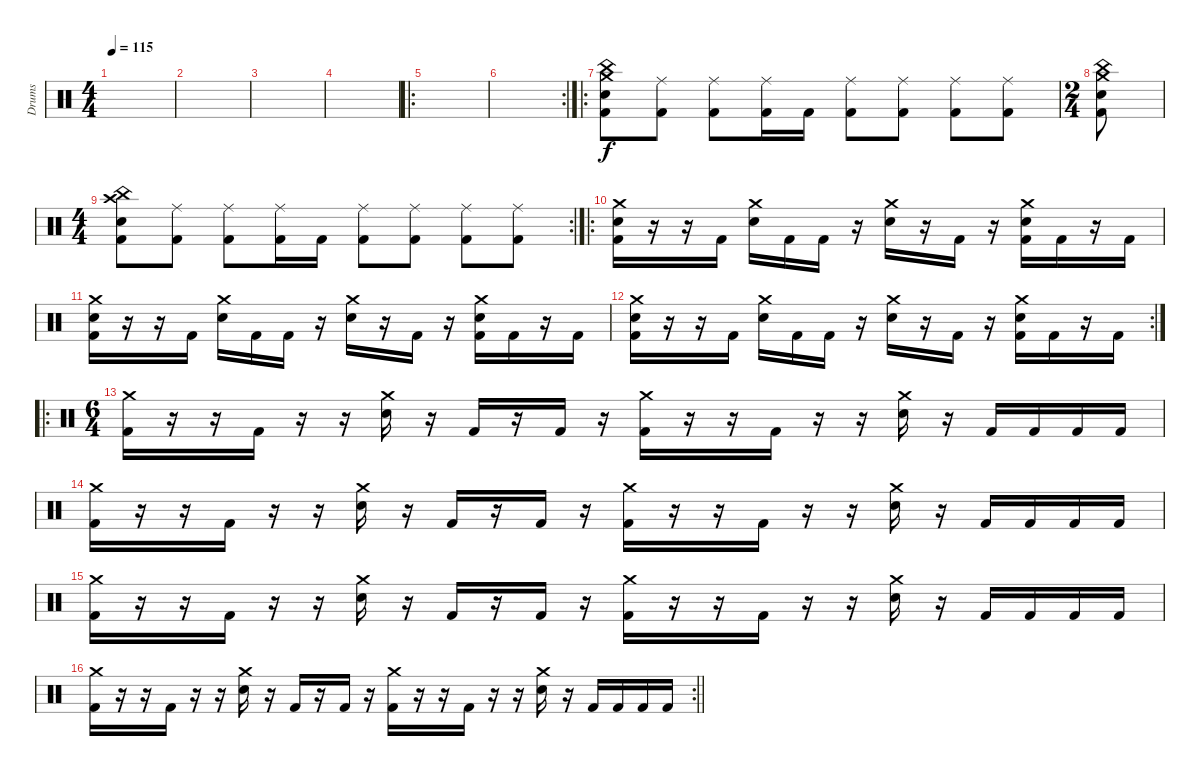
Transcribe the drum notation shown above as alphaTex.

\track ("Drums" "Drums") {instrument percussion}
\staff {score}
\articulation defaults
\ts (4 4)
\tempo 115
\clef neutral
\ks c
|
|
|
|
\ro
|
\rc 2
|
\ro
("Crash medium (hit)" "China (hit)" "Electric Snare (hit)" "Kick (hit) 2").8 ("Ride (middle)" "Kick (hit) 2").8 ("Ride (middle)" "Kick (hit) 2").8 ("Ride (middle)" "Kick (hit) 2").16 "Kick (hit) 2".16 ("Ride (middle)" "Kick (hit) 2").8 ("Ride (middle)" "Kick (hit) 2").8 ("Ride (middle)" "Kick (hit) 2").8 ("Ride (middle)" "Kick (hit) 2").8 |
\ts (2 4)
("Crash medium (hit)" "China (hit)" "Electric Snare (hit)" "Kick (hit) 2").8 |
\rc 2
\ts (4 4)
("Crash high (hit)" "China (hit)" "Electric Snare (hit)" "Kick (hit) 2").8 ("Ride (middle)" "Kick (hit) 2").8 ("Ride (middle)" "Kick (hit) 2").8 ("Ride (middle)" "Kick (hit) 2").16 "Kick (hit) 2".16 ("Ride (middle)" "Kick (hit) 2").8 ("Ride (middle)" "Kick (hit) 2").8 ("Ride (middle)" "Kick (hit) 2").8 ("Ride (middle)" "Kick (hit) 2").8 |
\ro
("Crash medium (hit)" "Electric Snare (hit)" "Kick (hit) 2").16 r.16 r.16 "Kick (hit) 2".16 ("Crash medium (hit)" "Electric Snare (hit)").16 "Kick (hit) 2".16 "Kick (hit) 2".16 r.16 ("Crash medium (hit)" "Electric Snare (hit)").16 r.16 "Kick (hit) 2".16 r.16 ("Crash medium (hit)" "Electric Snare (hit)" "Kick (hit) 2").16 "Kick (hit) 2".16 r.16 "Kick (hit) 2".16 |
("Crash medium (hit)" "Electric Snare (hit)" "Kick (hit) 2").16 r.16 r.16 "Kick (hit) 2".16 ("Crash medium (hit)" "Electric Snare (hit)").16 "Kick (hit) 2".16 "Kick (hit) 2".16 r.16 ("Crash medium (hit)" "Electric Snare (hit)").16 r.16 "Kick (hit) 2".16 r.16 ("Crash medium (hit)" "Electric Snare (hit)" "Kick (hit) 2").16 "Kick (hit) 2".16 r.16 "Kick (hit) 2".16 |
\rc 2
("Crash medium (hit)" "Electric Snare (hit)" "Kick (hit) 2").16 r.16 r.16 "Kick (hit) 2".16 ("Crash medium (hit)" "Electric Snare (hit)").16 "Kick (hit) 2".16 "Kick (hit) 2".16 r.16 ("Crash medium (hit)" "Electric Snare (hit)").16 r.16 "Kick (hit) 2".16 r.16 ("Crash medium (hit)" "Electric Snare (hit)" "Kick (hit) 2").16 "Kick (hit) 2".16 r.16 "Kick (hit) 2".16 |
\ro
\ts (6 4)
("Crash medium (hit)" "Kick (hit) 2").16 r.16 r.16 "Kick (hit) 2".16 r.16 r.16 ("Crash medium (hit)" "Electric Snare (hit)").16 r.16 "Kick (hit) 2".16 r.16 "Kick (hit) 2".16 r.16 ("Crash medium (hit)" "Kick (hit) 2").16 r.16 r.16 "Kick (hit) 2".16 r.16 r.16 ("Crash medium (hit)" "Electric Snare (hit)").16 r.16 "Kick (hit) 2".16 "Kick (hit) 2".16 "Kick (hit) 2".16 "Kick (hit) 2".16 |
("Crash medium (hit)" "Kick (hit) 2").16 r.16 r.16 "Kick (hit) 2".16 r.16 r.16 ("Crash medium (hit)" "Electric Snare (hit)").16 r.16 "Kick (hit) 2".16 r.16 "Kick (hit) 2".16 r.16 ("Crash medium (hit)" "Kick (hit) 2").16 r.16 r.16 "Kick (hit) 2".16 r.16 r.16 ("Crash medium (hit)" "Electric Snare (hit)").16 r.16 "Kick (hit) 2".16 "Kick (hit) 2".16 "Kick (hit) 2".16 "Kick (hit) 2".16 |
("Crash medium (hit)" "Kick (hit) 2").16 r.16 r.16 "Kick (hit) 2".16 r.16 r.16 ("Crash medium (hit)" "Electric Snare (hit)").16 r.16 "Kick (hit) 2".16 r.16 "Kick (hit) 2".16 r.16 ("Crash medium (hit)" "Kick (hit) 2").16 r.16 r.16 "Kick (hit) 2".16 r.16 r.16 ("Crash medium (hit)" "Electric Snare (hit)").16 r.16 "Kick (hit) 2".16 "Kick (hit) 2".16 "Kick (hit) 2".16 "Kick (hit) 2".16 |
\rc 2
\barLineRight lightlight
("Crash medium (hit)" "Kick (hit) 2").16 r.16 r.16 "Kick (hit) 2".16 r.16 r.16 ("Crash medium (hit)" "Electric Snare (hit)").16 r.16 "Kick (hit) 2".16 r.16 "Kick (hit) 2".16 r.16 ("Crash medium (hit)" "Kick (hit) 2").16 r.16 r.16 "Kick (hit) 2".16 r.16 r.16 ("Crash medium (hit)" "Electric Snare (hit)").16 r.16 "Kick (hit) 2".16 "Kick (hit) 2".16 "Kick (hit) 2".16 "Kick (hit) 2".16
